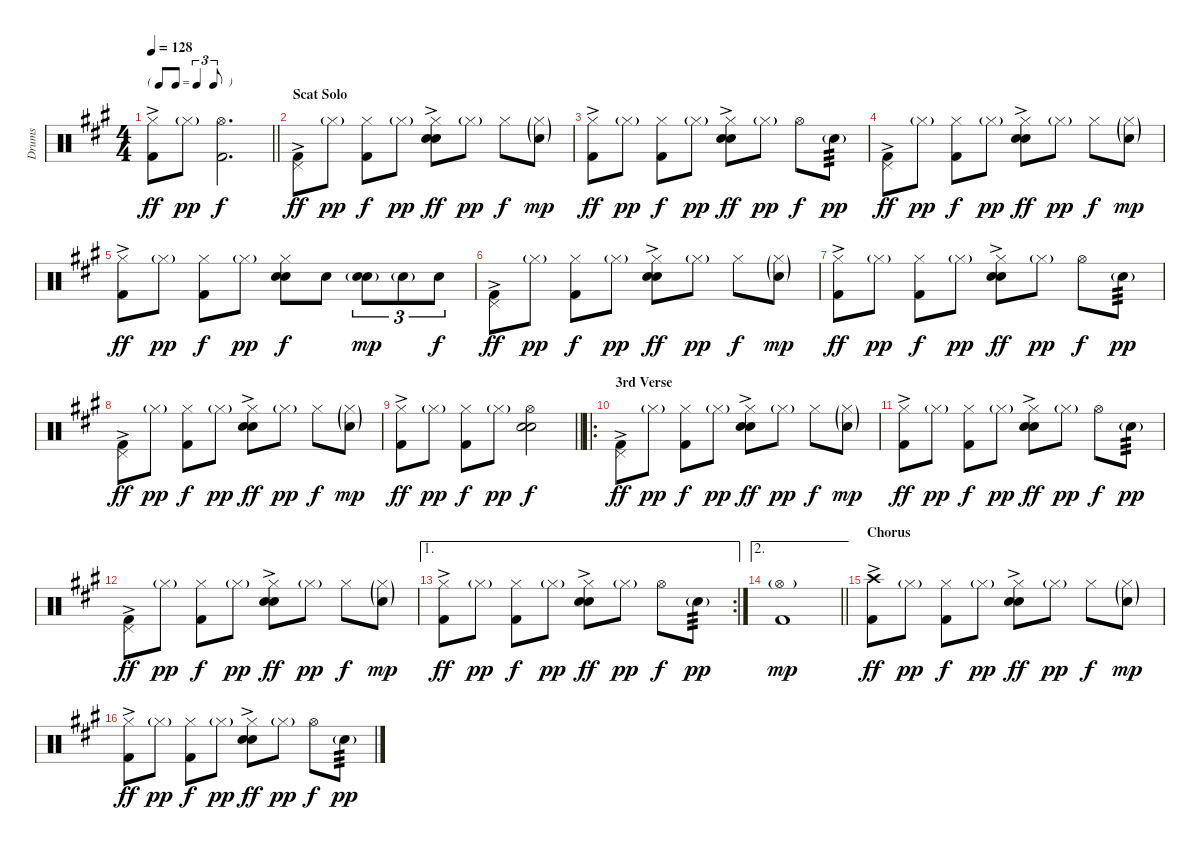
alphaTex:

\track ("Drums" "Drums") {instrument percussion}
\staff {score}
\articulation defaults
\ts (4 4)
\tf triplet8th
\tempo 128
\clef neutral
\barLineRight lightlight
\ks a
("Hi-Hat (closed)" "Kick (hit) 2"{ac}).8{dy ff} "Hi-Hat (closed)"{g}.8{dy pp} ("Hi-Hat (open)" "Kick (hit) 2").2{d dy f} |
\section ("" "Scat Solo")
("Pedal Hi-Hat (hit)" "Kick (hit) 2"{ac}).8{dy ff} "Hi-Hat (closed)"{g}.8{dy pp} ("Hi-Hat (closed)" "Kick (hit) 2").8{dy f} "Hi-Hat (closed)"{g}.8{dy pp} ("Hi-Hat (closed)" "Electric Snare (hit)"{ac} "Snare (hit) 2").8{dy ff} "Hi-Hat (closed)"{g}.8{dy pp} "Hi-Hat (closed)".8{dy f} ("Hi-Hat (closed)"{g} "Snare (hit) 2"{g}).8{dy mp} |
("Hi-Hat (closed)" "Kick (hit) 2"{ac}).8{dy ff} "Hi-Hat (closed)"{g}.8{dy pp} ("Hi-Hat (closed)" "Kick (hit) 2").8{dy f} "Hi-Hat (closed)"{g}.8{dy pp} ("Hi-Hat (closed)" "Electric Snare (hit)"{ac} "Snare (hit) 2").8{dy ff} "Hi-Hat (closed)"{g}.8{dy pp} "Hi-Hat (open)".8{dy f} "Snare (hit) 2"{g}.8{tp 3 dy pp} |
("Pedal Hi-Hat (hit)" "Kick (hit) 2"{ac}).8{dy ff} "Hi-Hat (closed)"{g}.8{dy pp} ("Hi-Hat (closed)" "Kick (hit) 2").8{dy f} "Hi-Hat (closed)"{g}.8{dy pp} ("Hi-Hat (closed)" "Electric Snare (hit)"{ac} "Snare (hit) 2").8{dy ff} "Hi-Hat (closed)"{g}.8{dy pp} "Hi-Hat (closed)".8{dy f} ("Hi-Hat (closed)"{g} "Snare (hit) 2"{g}).8{dy mp} |
("Hi-Hat (closed)" "Kick (hit) 2"{ac}).8{dy ff} "Hi-Hat (closed)"{g}.8{dy pp} ("Hi-Hat (closed)" "Kick (hit) 2").8{dy f} "Hi-Hat (closed)"{g}.8{dy pp} ("Hi-Hat (closed)" "Electric Snare (hit)" "Snare (hit) 2").8{dy f} "Snare (hit) 2".8 ("Electric Snare (hit)"{g} "Snare (hit) 2").8{tu (3 2) dy mp} "Snare (hit) 2"{g}.8{tu (3 2)} "Snare (hit) 2".8{tu (3 2) dy f} |
("Pedal Hi-Hat (hit)" "Kick (hit) 2"{ac}).8{dy ff} "Hi-Hat (closed)"{g}.8{dy pp} ("Hi-Hat (closed)" "Kick (hit) 2").8{dy f} "Hi-Hat (closed)"{g}.8{dy pp} ("Hi-Hat (closed)" "Electric Snare (hit)"{ac} "Snare (hit) 2").8{dy ff} "Hi-Hat (closed)"{g}.8{dy pp} "Hi-Hat (closed)".8{dy f} ("Hi-Hat (closed)"{g} "Snare (hit) 2"{g}).8{dy mp} |
("Hi-Hat (closed)" "Kick (hit) 2"{ac}).8{dy ff} "Hi-Hat (closed)"{g}.8{dy pp} ("Hi-Hat (closed)" "Kick (hit) 2").8{dy f} "Hi-Hat (closed)"{g}.8{dy pp} ("Hi-Hat (closed)" "Electric Snare (hit)"{ac} "Snare (hit) 2").8{dy ff} "Hi-Hat (closed)"{g}.8{dy pp} "Hi-Hat (open)".8{dy f} "Snare (hit) 2"{g}.8{tp 3 dy pp} |
("Pedal Hi-Hat (hit)" "Kick (hit) 2"{ac}).8{dy ff} "Hi-Hat (closed)"{g}.8{dy pp} ("Hi-Hat (closed)" "Kick (hit) 2").8{dy f} "Hi-Hat (closed)"{g}.8{dy pp} ("Hi-Hat (closed)" "Electric Snare (hit)"{ac} "Snare (hit) 2").8{dy ff} "Hi-Hat (closed)"{g}.8{dy pp} "Hi-Hat (closed)".8{dy f} ("Hi-Hat (closed)"{g} "Snare (hit) 2"{g}).8{dy mp} |
\barLineRight lightlight
("Hi-Hat (closed)" "Kick (hit) 2"{ac}).8{dy ff} "Hi-Hat (closed)"{g}.8{dy pp} ("Hi-Hat (closed)" "Kick (hit) 2").8{dy f} "Hi-Hat (closed)"{g}.8{dy pp} ("Hi-Hat (open)" "Electric Snare (hit)" "Snare (hit) 2").2{dy f} |
\ro
\section ("" "3rd Verse")
("Pedal Hi-Hat (hit)" "Kick (hit) 2"{ac}).8{dy ff} "Hi-Hat (closed)"{g}.8{dy pp} ("Hi-Hat (closed)" "Kick (hit) 2").8{dy f} "Hi-Hat (closed)"{g}.8{dy pp} ("Hi-Hat (closed)" "Electric Snare (hit)"{ac} "Snare (hit) 2").8{dy ff} "Hi-Hat (closed)"{g}.8{dy pp} "Hi-Hat (closed)".8{dy f} ("Hi-Hat (closed)"{g} "Snare (hit) 2"{g}).8{dy mp} |
("Hi-Hat (closed)" "Kick (hit) 2"{ac}).8{dy ff} "Hi-Hat (closed)"{g}.8{dy pp} ("Hi-Hat (closed)" "Kick (hit) 2").8{dy f} "Hi-Hat (closed)"{g}.8{dy pp} ("Hi-Hat (closed)" "Electric Snare (hit)"{ac} "Snare (hit) 2").8{dy ff} "Hi-Hat (closed)"{g}.8{dy pp} "Hi-Hat (open)".8{dy f} "Snare (hit) 2"{g}.8{tp 3 dy pp} |
("Pedal Hi-Hat (hit)" "Kick (hit) 2"{ac}).8{dy ff} "Hi-Hat (closed)"{g}.8{dy pp} ("Hi-Hat (closed)" "Kick (hit) 2").8{dy f} "Hi-Hat (closed)"{g}.8{dy pp} ("Hi-Hat (closed)" "Electric Snare (hit)"{ac} "Snare (hit) 2").8{dy ff} "Hi-Hat (closed)"{g}.8{dy pp} "Hi-Hat (closed)".8{dy f} ("Hi-Hat (closed)"{g} "Snare (hit) 2"{g}).8{dy mp} |
\ae 1
\rc 2
("Hi-Hat (closed)" "Kick (hit) 2"{ac}).8{dy ff} "Hi-Hat (closed)"{g}.8{dy pp} ("Hi-Hat (closed)" "Kick (hit) 2").8{dy f} "Hi-Hat (closed)"{g}.8{dy pp} ("Hi-Hat (closed)" "Electric Snare (hit)"{ac} "Snare (hit) 2").8{dy ff} "Hi-Hat (closed)"{g}.8{dy pp} "Hi-Hat (open)".8{dy f} "Snare (hit) 2"{g}.8{tp 3 dy pp} |
\ae 2
\barLineRight lightlight
("Hi-Hat (open)"{g} "Kick (hit) 2").1{dy mp} |
\section ("" "Chorus")
("Crash high (hit)" "Kick (hit) 2"{ac}).8{dy ff} "Hi-Hat (closed)"{g}.8{dy pp} ("Hi-Hat (closed)" "Kick (hit) 2").8{dy f} "Hi-Hat (closed)"{g}.8{dy pp} ("Hi-Hat (closed)" "Electric Snare (hit)"{ac} "Snare (hit) 2").8{dy ff} "Hi-Hat (closed)"{g}.8{dy pp} "Hi-Hat (closed)".8{dy f} ("Hi-Hat (closed)"{g} "Snare (hit) 2"{g}).8{dy mp} |
("Hi-Hat (closed)" "Kick (hit) 2"{ac}).8{dy ff} "Hi-Hat (closed)"{g}.8{dy pp} ("Hi-Hat (closed)" "Kick (hit) 2").8{dy f} "Hi-Hat (closed)"{g}.8{dy pp} ("Hi-Hat (closed)" "Electric Snare (hit)"{ac} "Snare (hit) 2").8{dy ff} "Hi-Hat (closed)"{g}.8{dy pp} "Hi-Hat (open)".8{dy f} "Snare (hit) 2"{g}.8{tp 3 dy pp}
